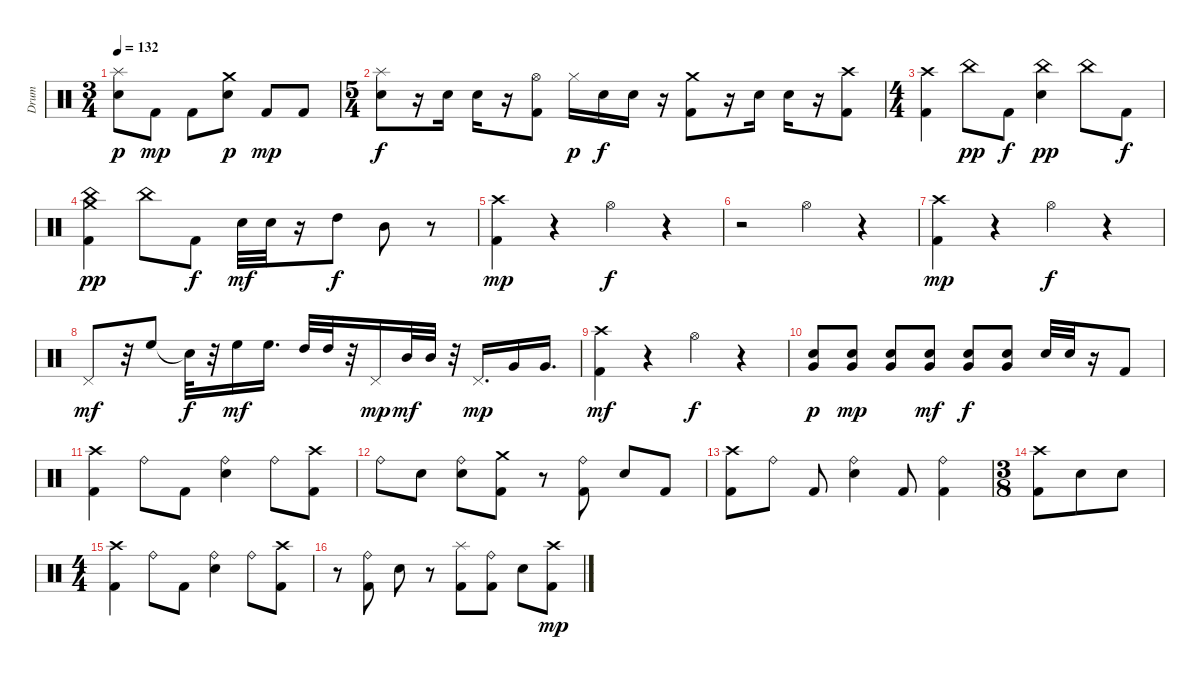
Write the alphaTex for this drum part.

\track ("Drum" "Drum") {instrument percussion}
\staff {score}
\articulation defaults
\ts (3 4)
\tempo 132
\clef neutral
\ks c
("Electric Snare (hit)" "Splash (hit)").8{dy p} "Kick (hit) 2".8{dy mp} "Kick (hit) 2".8 ("Electric Snare (hit)" "Crash medium (hit)").8{dy p} "Kick (hit) 2".8{dy mp} "Kick (hit) 2".8 |
\ts (5 4)
("Electric Snare (hit)" "Splash (hit)").8{dy f} r.16 "Electric Snare (hit)".16 "Electric Snare (hit)".16 r.16 ("Hi-Hat (open)" "Kick (hit) 2").8 "Hi-Hat (closed)".16{dy p} "Electric Snare (hit)".16{dy f} "Electric Snare (hit)".16 r.16 ("Kick (hit) 2" "Crash medium (hit)").8 r.16 "Electric Snare (hit)".16 "Electric Snare (hit)".16 r.16 ("Kick (hit) 2" "Crash high (hit)").8 |
\ts (4 4)
("Crash high (hit)" "Kick (hit) 2").4 "China (hit)".8{dy pp} "Kick (hit) 2".8{dy f} ("China (hit)" "Electric Snare (hit)").4{dy pp} "China (hit)".8 "Kick (hit) 2".8{dy f} |
("Kick (hit) 2" "Crash medium (hit)" "China (hit)").4{dy pp} "China (hit)".8 "Kick (hit) 2".8{dy f} "Electric Snare (hit)".32{dy mf} "Electric Snare (hit)".32 r.16 "High Tom (hit)".8{dy f} "Mid Tom (hit)".8 r.8 |
("Kick (hit) 2" "Crash high (hit)").4{dy mp} r.4 "Hi-Hat (open)".4{dy f} r.4 |
r.2 "Hi-Hat (open)".4 r.4 |
("Crash high (hit)" "Kick (hit) 2").4{dy mp} r.4 "Hi-Hat (open)".4{dy f} r.4 |
"Pedal Hi-Hat (hit)".8{dy mf} r.32 "High Floor Tom (hit)".8 "Snare (hit)"{t}.32{dy f} r.32 "High Floor Tom (hit)".16{dy mf} "High Floor Tom (hit)".16{d} "High Tom (hit)".32 "High Tom (hit)".32 r.32 "Pedal Hi-Hat (hit)".16{dy mp} "Mid Tom (hit)".32{dy mf} "Mid Tom (hit)".32 r.32 "Pedal Hi-Hat (hit)".16{d dy mp} "Very Low Tom (hit)".16 "Very Low Tom (hit)".16{d} |
("Kick (hit) 2" "Crash high (hit)").4{dy mf} r.4 "Hi-Hat (open)".4{dy f} r.4 |
("Electric Snare (hit)" "Very Low Tom (hit)").8{dy p} ("Electric Snare (hit)" "Very Low Tom (hit)").8{dy mp} ("Electric Snare (hit)" "Very Low Tom (hit)").8 ("Electric Snare (hit)" "Very Low Tom (hit)").8{dy mf} ("Electric Snare (hit)" "Very Low Tom (hit)").8{dy f} ("Electric Snare (hit)" "Very Low Tom (hit)").8 "Electric Snare (hit)".32 "Electric Snare (hit)".32 r.16 "Kick (hit) 2".8 |
("Kick (hit) 2" "Crash high (hit)").4 "Ride (bell)".8 "Kick (hit) 2".8 ("Ride (bell)" "Electric Snare (hit)").4 "Ride (bell)".8 ("Kick (hit) 2" "Crash high (hit)").8 |
"Ride (bell)".8 "Electric Snare (hit)".8 ("Electric Snare (hit)" "Ride (bell)").8 ("Kick (hit) 2" "Crash medium (hit)").8 r.8 ("Kick (hit) 2" "Ride (bell)").8 "Electric Snare (hit)".8 "Kick (hit) 2".8 |
("Crash high (hit)" "Kick (hit) 2").8 "Ride (bell)".8 "Kick (hit) 2".8 ("Electric Snare (hit)" "Ride (bell)").4 "Kick (hit) 2".8 ("Kick (hit) 2" "Ride (bell)").4 |
\ts (3 8)
("Crash high (hit)" "Kick (hit) 2").8 "Electric Snare (hit)".8 "Electric Snare (hit)".8 |
\ts (4 4)
("Crash high (hit)" "Kick (hit) 2").4 "Ride (bell)".8 "Kick (hit) 2".8 ("Ride (bell)" "Electric Snare (hit)").4 "Ride (bell)".8 ("Kick (hit) 2" "Crash high (hit)").8 |
r.8 ("Kick (hit) 2" "Ride (bell)").8 "Electric Snare (hit)".8 r.8 ("Kick (hit) 2" "Splash (hit)").8 ("Kick (hit) 2" "Ride (bell)").8 "Electric Snare (hit)".8 ("Kick (hit) 2" "Crash high (hit)").8{dy mp}
